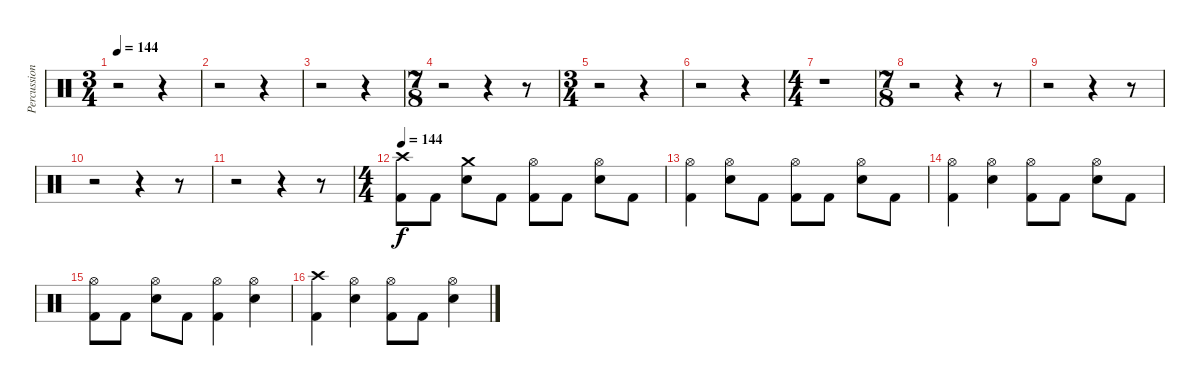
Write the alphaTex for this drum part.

\track ("Percussion" "Percussion") {instrument percussion}
\staff {score}
\articulation defaults
\ts (3 4)
\tempo 144
\clef neutral
\ks c
r.2{dy f} r.4 |
r.2 r.4 |
r.2 r.4 |
\ts (7 8)
r.2 r.4 r.8 |
\ts (3 4)
r.2 r.4 |
r.2 r.4 |
\ts (4 4)
r.1 |
\ts (7 8)
r.2 r.4 r.8 |
r.2 r.4 r.8 |
r.2 r.4 r.8 |
r.2 r.4 r.8 |
\ts (4 4)
\section ("" "")
\tempo 144
("Crash high (hit)" "Kick (hit) 2").8 "Kick (hit) 2".8 ("Crash medium (hit)" "Snare (hit) 2").8 "Kick (hit) 2".8 ("Hi-Hat (open)" "Kick (hit) 2").8 "Kick (hit) 2".8 ("Hi-Hat (open)" "Snare (hit) 2").8 "Kick (hit) 2".8 |
("Hi-Hat (open)" "Kick (hit) 2").4 ("Hi-Hat (open)" "Snare (hit) 2").8 "Kick (hit) 2".8 ("Hi-Hat (open)" "Kick (hit) 2").8 "Kick (hit) 2".8 ("Hi-Hat (open)" "Snare (hit) 2").8 "Kick (hit) 2".8 |
("Hi-Hat (open)" "Kick (hit) 2").4 ("Hi-Hat (open)" "Snare (hit) 2").4 ("Hi-Hat (open)" "Kick (hit) 2").8 "Kick (hit) 2".8 ("Hi-Hat (open)" "Snare (hit) 2").8 "Kick (hit) 2".8 |
("Hi-Hat (open)" "Kick (hit) 2").8 "Kick (hit) 2".8 ("Hi-Hat (open)" "Snare (hit) 2").8 "Kick (hit) 2".8 ("Hi-Hat (open)" "Kick (hit) 2").4 ("Hi-Hat (open)" "Snare (hit) 2").4 |
("Crash high (hit)" "Kick (hit) 2").4 ("Hi-Hat (open)" "Snare (hit) 2").4 ("Hi-Hat (open)" "Kick (hit) 2").8 "Kick (hit) 2".8 ("Hi-Hat (open)" "Snare (hit) 2").4
